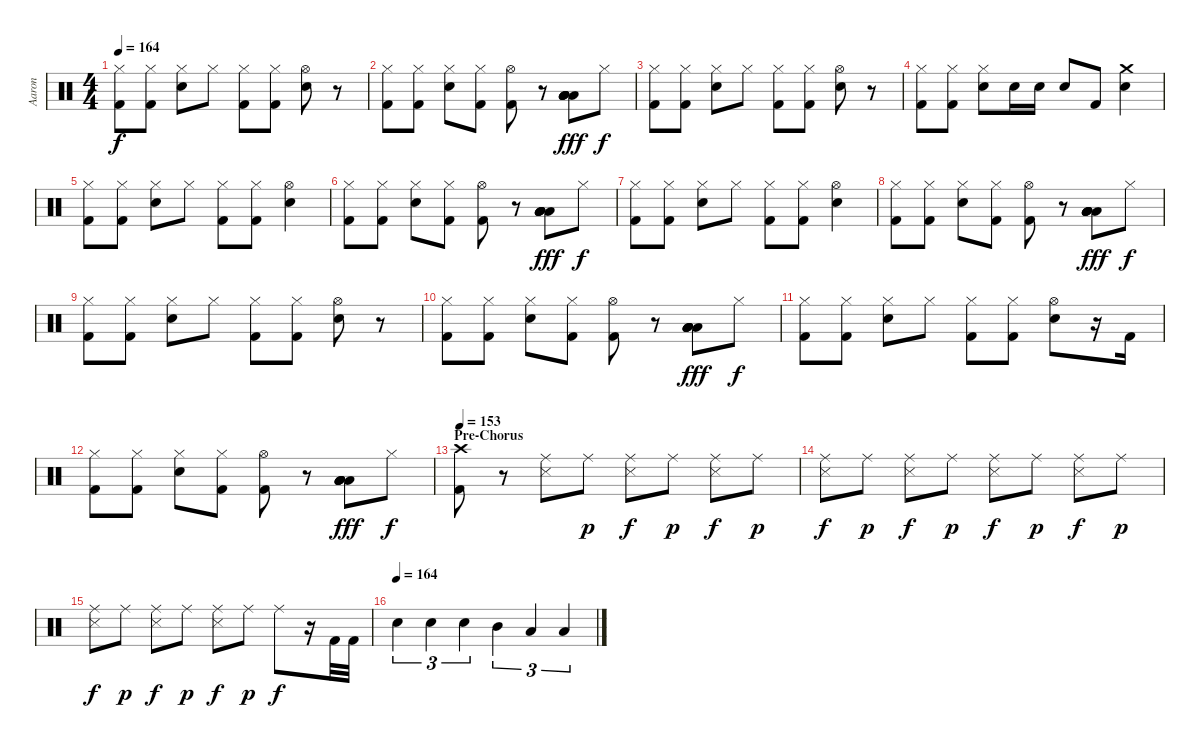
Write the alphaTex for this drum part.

\track ("Aaron" "Aaron") {instrument percussion}
\staff {score}
\articulation defaults
\ts (4 4)
\tempo 164
\clef neutral
\ks c
("Hi-Hat (closed)" "Kick (hit) 2").8{dy f} ("Hi-Hat (closed)" "Kick (hit) 2").8 ("Hi-Hat (closed)" "Snare (hit) 2").8 "Hi-Hat (closed)".8 ("Hi-Hat (closed)" "Kick (hit) 2").8 ("Hi-Hat (closed)" "Kick (hit) 2").8 ("Hi-Hat (open)" "Snare (hit) 2").8 r.8 |
("Hi-Hat (closed)" "Kick (hit) 2").8 ("Hi-Hat (closed)" "Kick (hit) 2").8 ("Hi-Hat (closed)" "Snare (hit) 2").8 ("Hi-Hat (closed)" "Kick (hit) 2").8 ("Hi-Hat (open)" "Kick (hit) 2").8 r.8 ("Low Floor Tom (hit)" "Low Floor Tom (hit)" "Low Floor Tom (hit)" "Low Floor Tom (hit)" "Low Floor Tom (hit)").8{dy fff} "Hi-Hat (closed)".8{dy f} |
("Hi-Hat (closed)" "Kick (hit) 2").8 ("Hi-Hat (closed)" "Kick (hit) 2").8 ("Hi-Hat (closed)" "Snare (hit) 2").8 "Hi-Hat (closed)".8 ("Hi-Hat (closed)" "Kick (hit) 2").8 ("Hi-Hat (closed)" "Kick (hit) 2").8 ("Hi-Hat (open)" "Snare (hit) 2").8 r.8 |
("Hi-Hat (closed)" "Kick (hit) 2").8 ("Hi-Hat (closed)" "Kick (hit) 2").8 ("Hi-Hat (closed)" "Snare (hit) 2").8 "Snare (hit) 2".16 "Snare (hit) 2".16 "Snare (hit) 2".8 "Kick (hit) 2".8 ("Crash medium (hit)" "Snare (hit) 2").4 |
("Hi-Hat (closed)" "Kick (hit) 2").8 ("Hi-Hat (closed)" "Kick (hit) 2").8 ("Hi-Hat (closed)" "Snare (hit) 2").8 "Hi-Hat (closed)".8 ("Hi-Hat (closed)" "Kick (hit) 2").8 ("Hi-Hat (closed)" "Kick (hit) 2").8 ("Hi-Hat (open)" "Snare (hit) 2").4 |
("Hi-Hat (closed)" "Kick (hit) 2").8 ("Hi-Hat (closed)" "Kick (hit) 2").8 ("Hi-Hat (closed)" "Snare (hit) 2").8 ("Hi-Hat (closed)" "Kick (hit) 2").8 ("Hi-Hat (open)" "Kick (hit) 2").8 r.8 ("Low Floor Tom (hit)" "Low Floor Tom (hit)" "Low Floor Tom (hit)" "Low Floor Tom (hit)" "Low Floor Tom (hit)").8{dy fff} "Hi-Hat (closed)".8{dy f} |
("Hi-Hat (closed)" "Kick (hit) 2").8 ("Hi-Hat (closed)" "Kick (hit) 2").8 ("Hi-Hat (closed)" "Snare (hit) 2").8 "Hi-Hat (closed)".8 ("Hi-Hat (closed)" "Kick (hit) 2").8 ("Hi-Hat (closed)" "Kick (hit) 2").8 ("Hi-Hat (open)" "Snare (hit) 2").4 |
("Hi-Hat (closed)" "Kick (hit) 2").8 ("Hi-Hat (closed)" "Kick (hit) 2").8 ("Hi-Hat (closed)" "Snare (hit) 2").8 ("Hi-Hat (closed)" "Kick (hit) 2").8 ("Hi-Hat (open)" "Kick (hit) 2").8 r.8 ("Low Floor Tom (hit)" "Low Floor Tom (hit)" "Low Floor Tom (hit)" "Low Floor Tom (hit)" "Low Floor Tom (hit)").8{dy fff} "Hi-Hat (closed)".8{dy f} |
("Hi-Hat (closed)" "Kick (hit) 2").8 ("Hi-Hat (closed)" "Kick (hit) 2").8 ("Hi-Hat (closed)" "Snare (hit) 2").8 "Hi-Hat (closed)".8 ("Hi-Hat (closed)" "Kick (hit) 2").8 ("Hi-Hat (closed)" "Kick (hit) 2").8 ("Hi-Hat (open)" "Snare (hit) 2").8 r.8 |
("Hi-Hat (closed)" "Kick (hit) 2").8 ("Hi-Hat (closed)" "Kick (hit) 2").8 ("Hi-Hat (closed)" "Snare (hit) 2").8 ("Hi-Hat (closed)" "Kick (hit) 2").8 ("Hi-Hat (open)" "Kick (hit) 2").8 r.8 ("Low Floor Tom (hit)" "Low Floor Tom (hit)" "Low Floor Tom (hit)" "Low Floor Tom (hit)" "Low Floor Tom (hit)").8{dy fff} "Hi-Hat (closed)".8{dy f} |
("Hi-Hat (closed)" "Kick (hit) 2").8 ("Hi-Hat (closed)" "Kick (hit) 2").8 ("Hi-Hat (closed)" "Snare (hit) 2").8 "Hi-Hat (closed)".8 ("Hi-Hat (closed)" "Kick (hit) 2").8 ("Hi-Hat (closed)" "Kick (hit) 2").8 ("Hi-Hat (open)" "Snare (hit) 2").8 r.16 "Kick (hit) 2".16 |
("Hi-Hat (closed)" "Kick (hit) 2").8 ("Hi-Hat (closed)" "Kick (hit) 2").8 ("Hi-Hat (closed)" "Snare (hit) 2").8 ("Hi-Hat (closed)" "Kick (hit) 2").8 ("Hi-Hat (open)" "Kick (hit) 2").8 r.8 ("Low Floor Tom (hit)" "Low Floor Tom (hit)" "Low Floor Tom (hit)" "Low Floor Tom (hit)" "Low Floor Tom (hit)").8{dy fff} "Hi-Hat (closed)".8{dy f} |
\section ("" "Pre-Chorus")
\tempo 154
\tempo 153
("Crash high (hit)" "Kick (hit) 2").8 r.8 ("Ride (middle)" "Snare (side stick) 3").8 "Ride (middle)".8{dy p} ("Ride (middle)" "Snare (side stick) 3").8{dy f} "Ride (middle)".8{dy p} ("Ride (middle)" "Snare (side stick) 3").8{dy f} "Ride (middle)".8{dy p} |
("Ride (middle)" "Snare (side stick) 3").8{dy f} "Ride (middle)".8{dy p} ("Ride (middle)" "Snare (side stick) 3").8{dy f} "Ride (middle)".8{dy p} ("Ride (middle)" "Snare (side stick) 3").8{dy f} "Ride (middle)".8{dy p} ("Ride (middle)" "Snare (side stick) 3").8{dy f} "Ride (middle)".8{dy p} |
("Ride (middle)" "Snare (side stick) 3").8{dy f} "Ride (middle)".8{dy p} ("Ride (middle)" "Snare (side stick) 3").8{dy f} "Ride (middle)".8{dy p} ("Ride (middle)" "Snare (side stick) 3").8{dy f} "Ride (middle)".8{dy p} "Ride (middle)".8{dy f} r.16 "Kick (hit) 2".32 "Kick (hit) 2".32 |
\tempo (164)
"Snare (hit) 2".4{tu (3 2)} "Snare (hit) 2".4{tu (3 2)} "Snare (hit) 2".4{tu (3 2)} "Mid Tom (hit)".4{tu (3 2)} "Low Tom (hit)".4{tu (3 2)} "Low Floor Tom (hit)".4{tu (3 2)}
